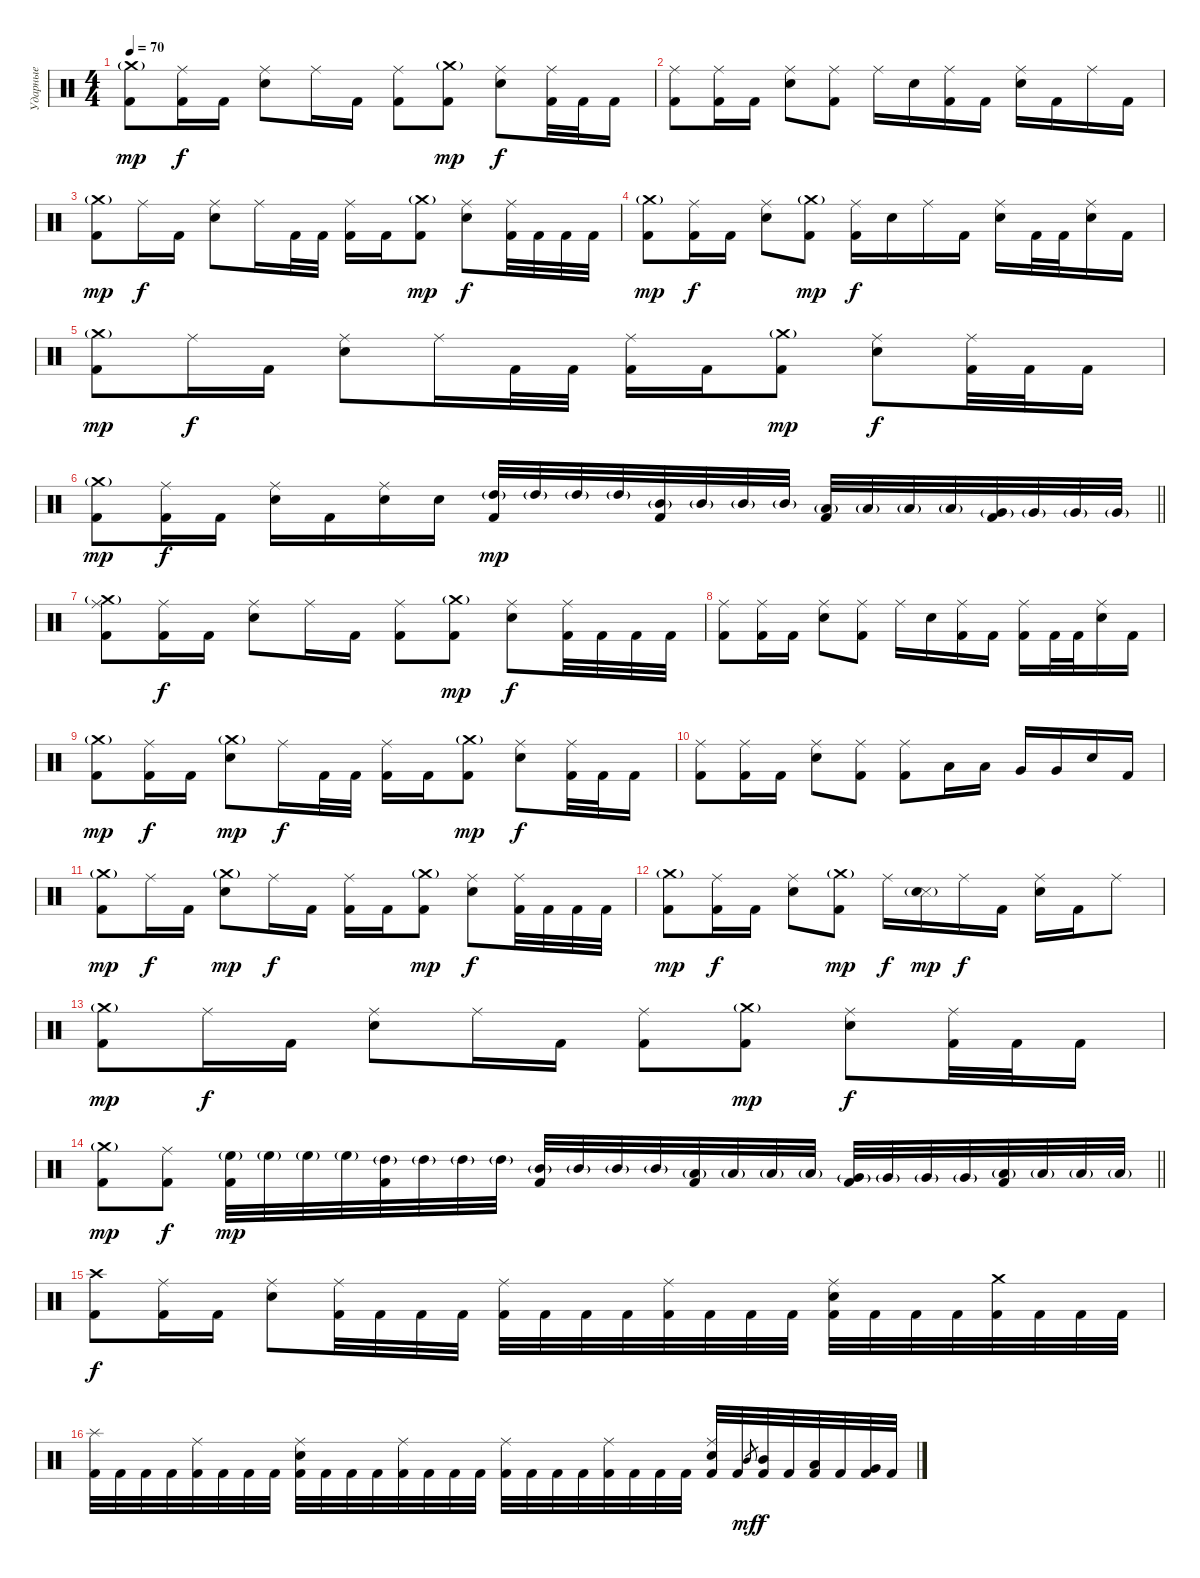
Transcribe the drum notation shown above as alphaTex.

\track ("Ударные" "Ударные") {instrument percussion}
\staff {score}
\articulation defaults
\ts (4 4)
\tempo 70
\clef neutral
\ks c
("Kick (hit) 2" "Crash medium (hit)"{g}).8{dy mp} ("Kick (hit) 2" "Ride (middle)").16{dy f} "Kick (hit) 2".16 ("Electric Snare (hit)" "Ride (middle)").8 "Ride (middle)".16 "Kick (hit) 2".16 ("Kick (hit) 2" "Ride (middle)").8 ("Kick (hit) 2" "Crash medium (hit)"{g}).8{dy mp} ("Electric Snare (hit)" "Ride (middle)").8{dy f} ("Kick (hit) 2" "Ride (middle)").32 "Kick (hit) 2".32 "Kick (hit) 2".16 |
("Kick (hit) 2" "Ride (middle)").8 ("Kick (hit) 2" "Ride (middle)").16 "Kick (hit) 2".16 ("Electric Snare (hit)" "Ride (middle)").8 ("Kick (hit) 2" "Ride (middle)").8 "Ride (middle)".16 "Electric Snare (hit)".16 ("Kick (hit) 2" "Ride (middle)").16 "Kick (hit) 2".16 ("Electric Snare (hit)" "Ride (middle)").16 "Kick (hit) 2".16 "Ride (middle)".16 "Kick (hit) 2".16 |
("Kick (hit) 2" "Crash medium (hit)"{g}).8{dy mp} "Ride (middle)".16{dy f} "Kick (hit) 2".16 ("Electric Snare (hit)" "Ride (middle)").8 "Ride (middle)".16 "Kick (hit) 2".32 "Kick (hit) 2".32 ("Kick (hit) 2" "Ride (middle)").16 "Kick (hit) 2".16 ("Kick (hit) 2" "Crash medium (hit)"{g}).8{dy mp} ("Electric Snare (hit)" "Ride (middle)").8{dy f} ("Kick (hit) 2" "Ride (middle)").32 "Kick (hit) 2".32 "Kick (hit) 2".32 "Kick (hit) 2".32 |
("Kick (hit) 2" "Crash medium (hit)"{g}).8{dy mp} ("Kick (hit) 2" "Ride (middle)").16{dy f} "Kick (hit) 2".16 ("Electric Snare (hit)" "Ride (middle)").8 ("Kick (hit) 2" "Crash medium (hit)"{g}).8{dy mp} ("Kick (hit) 2" "Ride (middle)").16{dy f} "Electric Snare (hit)".16 "Ride (middle)".16 "Kick (hit) 2".16 ("Electric Snare (hit)" "Ride (middle)").16 "Kick (hit) 2".32 "Kick (hit) 2".32 ("Electric Snare (hit)" "Ride (middle)").16 "Kick (hit) 2".16 |
("Kick (hit) 2" "Crash medium (hit)"{g}).8{dy mp} "Ride (middle)".16{dy f} "Kick (hit) 2".16 ("Electric Snare (hit)" "Ride (middle)").8 "Ride (middle)".16 "Kick (hit) 2".32 "Kick (hit) 2".32 ("Kick (hit) 2" "Ride (middle)").16 "Kick (hit) 2".16 ("Kick (hit) 2" "Crash medium (hit)"{g}).8{dy mp} ("Electric Snare (hit)" "Ride (middle)").8{dy f} ("Kick (hit) 2" "Ride (middle)").32 "Kick (hit) 2".32 "Kick (hit) 2".16 |
\barLineRight lightlight
("Kick (hit) 2" "Crash medium (hit)"{g}).8{dy mp} ("Kick (hit) 2" "Ride (middle)").16{dy f} "Kick (hit) 2".16 ("Electric Snare (hit)" "Ride (middle)").16 "Kick (hit) 2".16 ("Electric Snare (hit)" "Ride (middle)").16 "Electric Snare (hit)".16 ("High Tom (hit)"{g} "Kick (hit) 2").32{dy mp} "High Tom (hit)"{g}.32 "High Tom (hit)"{g}.32 "High Tom (hit)"{g}.32 ("Mid Tom (hit)"{g} "Kick (hit) 2").32 "Mid Tom (hit)"{g}.32 "Mid Tom (hit)"{g}.32 "Mid Tom (hit)"{g}.32 ("Low Tom (hit)"{g} "Kick (hit) 2").32 "Low Tom (hit)"{g}.32 "Low Tom (hit)"{g}.32 "Low Tom (hit)"{g}.32 ("Very Low Tom (hit)"{g} "Kick (hit) 2").32 "Very Low Tom (hit)"{g}.32 "Very Low Tom (hit)"{g}.32 "Very Low Tom (hit)"{g}.32 |
\section ("" "")
("Kick (hit) 2" "Crash medium (hit)"{g} "Ride (middle)").8 ("Kick (hit) 2" "Ride (middle)").16{dy f} "Kick (hit) 2".16 ("Electric Snare (hit)" "Ride (middle)").8 "Ride (middle)".16 "Kick (hit) 2".16 ("Kick (hit) 2" "Ride (middle)").8 ("Kick (hit) 2" "Crash medium (hit)"{g}).8{dy mp} ("Electric Snare (hit)" "Ride (middle)").8{dy f} ("Kick (hit) 2" "Ride (middle)").32 "Kick (hit) 2".32 "Kick (hit) 2".32 "Kick (hit) 2".32 |
("Kick (hit) 2" "Ride (middle)").8 ("Kick (hit) 2" "Ride (middle)").16 "Kick (hit) 2".16 ("Electric Snare (hit)" "Ride (middle)").8 ("Kick (hit) 2" "Ride (middle)").8 "Ride (middle)".16 "Electric Snare (hit)".16 ("Kick (hit) 2" "Ride (middle)").16 "Kick (hit) 2".16 ("Kick (hit) 2" "Ride (middle)").16 "Kick (hit) 2".32 "Kick (hit) 2".32 ("Electric Snare (hit)" "Ride (middle)").16 "Kick (hit) 2".16 |
("Kick (hit) 2" "Crash medium (hit)"{g}).8{dy mp} ("Kick (hit) 2" "Ride (middle)").16{dy f} "Kick (hit) 2".16 ("Electric Snare (hit)" "Crash medium (hit)"{g}).8{dy mp} "Ride (middle)".16{dy f} "Kick (hit) 2".32 "Kick (hit) 2".32 ("Kick (hit) 2" "Ride (middle)").16 "Kick (hit) 2".16 ("Kick (hit) 2" "Crash medium (hit)"{g}).8{dy mp} ("Electric Snare (hit)" "Ride (middle)").8{dy f} ("Kick (hit) 2" "Ride (middle)").32 "Kick (hit) 2".32 "Kick (hit) 2".16 |
("Kick (hit) 2" "Ride (middle)").8 ("Kick (hit) 2" "Ride (middle)").16 "Kick (hit) 2".16 ("Electric Snare (hit)" "Ride (middle)").8 ("Kick (hit) 2" "Ride (middle)").8 ("Kick (hit) 2" "Ride (middle)").8 "Low Tom (hit)".16 "Low Tom (hit)".16 "Very Low Tom (hit)".16 "Very Low Tom (hit)".16 "Electric Snare (hit)".16 "Kick (hit) 2".16 |
("Kick (hit) 2" "Crash medium (hit)"{g}).8{dy mp} "Ride (middle)".16{dy f} "Kick (hit) 2".16 ("Electric Snare (hit)" "Crash medium (hit)"{g}).8{dy mp} "Ride (middle)".16{dy f} "Kick (hit) 2".16 ("Kick (hit) 2" "Ride (middle)").16 "Kick (hit) 2".16 ("Kick (hit) 2" "Crash medium (hit)"{g}).8{dy mp} ("Electric Snare (hit)" "Ride (middle)").8{dy f} ("Kick (hit) 2" "Ride (middle)").32 "Kick (hit) 2".32 "Kick (hit) 2".32 "Kick (hit) 2".32 |
("Kick (hit) 2" "Crash medium (hit)"{g}).8{dy mp} ("Kick (hit) 2" "Ride (middle)").16{dy f} "Kick (hit) 2".16 ("Electric Snare (hit)" "Ride (middle)").8 ("Kick (hit) 2" "Crash medium (hit)"{g}).8{dy mp} "Ride (middle)".16{dy f} ("Snare (side stick) 3" "Electric Snare (hit)"{g}).16{dy mp} "Ride (middle)".16{dy f} "Kick (hit) 2".16 ("Electric Snare (hit)" "Ride (middle)").16 "Kick (hit) 2".16 "Ride (middle)".8 |
("Kick (hit) 2" "Crash medium (hit)"{g}).8{dy mp} "Ride (middle)".16{dy f} "Kick (hit) 2".16 ("Electric Snare (hit)" "Ride (middle)").8 "Ride (middle)".16 "Kick (hit) 2".16 ("Kick (hit) 2" "Ride (middle)").8 ("Kick (hit) 2" "Crash medium (hit)"{g}).8{dy mp} ("Electric Snare (hit)" "Ride (middle)").8{dy f} ("Kick (hit) 2" "Ride (middle)").32 "Kick (hit) 2".32 "Kick (hit) 2".16 |
\barLineRight lightlight
("Kick (hit) 2" "Crash medium (hit)"{g}).8{dy mp} ("Kick (hit) 2" "Ride (middle)").8{dy f} ("High Floor Tom (hit)"{g} "Kick (hit) 2").32{dy mp} "High Floor Tom (hit)"{g}.32 "High Floor Tom (hit)"{g}.32 "High Floor Tom (hit)"{g}.32 ("High Tom (hit)"{g} "Kick (hit) 2").32 "High Tom (hit)"{g}.32 "High Tom (hit)"{g}.32 "High Tom (hit)"{g}.32 ("Mid Tom (hit)"{g} "Kick (hit) 2").32 "Mid Tom (hit)"{g}.32 "Mid Tom (hit)"{g}.32 "Mid Tom (hit)"{g}.32 ("Low Tom (hit)"{g} "Kick (hit) 2").32 "Low Tom (hit)"{g}.32 "Low Tom (hit)"{g}.32 "Low Tom (hit)"{g}.32 ("Very Low Tom (hit)"{g} "Kick (hit) 2").32 "Very Low Tom (hit)"{g}.32 "Very Low Tom (hit)"{g}.32 "Very Low Tom (hit)"{g}.32 ("Low Floor Tom (hit)"{g} "Kick (hit) 2").32 "Low Floor Tom (hit)"{g}.32 "Low Floor Tom (hit)"{g}.32 "Low Floor Tom (hit)"{g}.32 |
\section ("" "")
("Kick (hit) 2" "Crash high (hit)").8{dy f} ("Kick (hit) 2" "Ride (middle)").16 "Kick (hit) 2".16 ("Electric Snare (hit)" "Ride (middle)").8 ("Kick (hit) 2" "Ride (middle)").32 "Kick (hit) 2".32 "Kick (hit) 2".32 "Kick (hit) 2".32 ("Kick (hit) 2" "Ride (middle)").32 "Kick (hit) 2".32 "Kick (hit) 2".32 "Kick (hit) 2".32 ("Kick (hit) 2" "Ride (middle)").32 "Kick (hit) 2".32 "Kick (hit) 2".32 "Kick (hit) 2".32 ("Kick (hit) 2" "Ride (middle)" "Electric Snare (hit)").32 "Kick (hit) 2".32 "Kick (hit) 2".32 "Kick (hit) 2".32 ("Kick (hit) 2" "Crash medium (hit)").32 "Kick (hit) 2".32 "Kick (hit) 2".32 "Kick (hit) 2".32 |
("Kick (hit) 2" "Splash (hit)").32 "Kick (hit) 2".32 "Kick (hit) 2".32 "Kick (hit) 2".32 ("Kick (hit) 2" "Ride (middle)").32 "Kick (hit) 2".32 "Kick (hit) 2".32 "Kick (hit) 2".32 ("Kick (hit) 2" "Electric Snare (hit)" "Ride (middle)").32 "Kick (hit) 2".32 "Kick (hit) 2".32 "Kick (hit) 2".32 ("Kick (hit) 2" "Ride (middle)").32 "Kick (hit) 2".32 "Kick (hit) 2".32 "Kick (hit) 2".32 ("Kick (hit) 2" "Ride (middle)").32 "Kick (hit) 2".32 "Kick (hit) 2".32 "Kick (hit) 2".32 ("Kick (hit) 2" "Ride (middle)").32 "Kick (hit) 2".32 "Kick (hit) 2".32 "Kick (hit) 2".32 ("Kick (hit) 2" "Electric Snare (hit)" "Ride (middle)").32 "Kick (hit) 2".32 "Mid Tom (hit)".8{gr dy mf} ("Kick (hit) 2" "Mid Tom (hit)").32{dy f} "Kick (hit) 2".32 ("Kick (hit) 2" "Low Tom (hit)").32 "Kick (hit) 2".32 ("Kick (hit) 2" "Very Low Tom (hit)").32 "Kick (hit) 2".32
